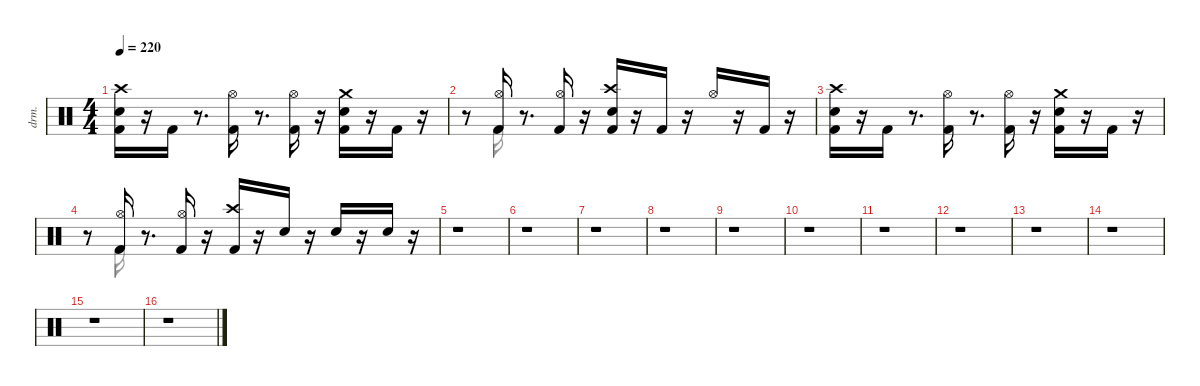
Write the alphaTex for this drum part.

\defaultSystemsLayout 4
\hideDynamics
\bracketExtendMode nobrackets
\otherSystemsTrackNameOrientation horizontal
\track ("EZdrummer 3" "drm.") {mute instrument percussion}
\staff {score}
\articulation defaults
\voice
\ts (4 4)
\tempo 220
\clef neutral
\ks c
("Kick (hit) 2" "Snare (hit) 2" "Crash high (hit)"{acc #}).16{dy ff beam Down} r.16{beam Down} "Kick (hit) 2".16{dy f beam Up} r.8{d beam Up} ("Kick (hit) 2" "Hi-Hat (open)"{acc #}).16{dy mf beam Down} r.8{d beam Down} ("Kick (hit) 2" "Hi-Hat (open)"{acc #}).16{dy f beam Down} r.16{beam Down} ("Kick (hit) 2" "Snare (hit) 2" "Crash medium (hit)").16{dy fff beam Down} r.16{beam Down} "Kick (hit) 2".16{dy f beam Up} r.16{beam Up} |
r.8{beam Up} ("Kick (hit) 2" "Hi-Hat (open)"{acc #}).16{dy mf beam Up} r.8{d beam Up} ("Kick (hit) 2" "Hi-Hat (open)"{acc #}).16{dy f beam Up} r.16{beam Up} ("Kick (hit) 2" "Snare (hit) 2" "Crash high (hit)"{acc #}).16{dy fff beam Up} r.16{beam Up} "Kick (hit) 2".16{dy f beam Up} r.16{beam Up} "Hi-Hat (open)"{acc #}.16{dy ff beam Up} r.16{beam Up} "Kick (hit) 2".16{dy mf beam Up} r.16{beam Up} |
("Kick (hit) 2" "Snare (hit) 2" "Crash high (hit)"{acc #}).16{dy ff beam Down} r.16{beam Down} "Kick (hit) 2".16{dy f beam Up} r.8{d beam Up} ("Kick (hit) 2" "Hi-Hat (open)"{acc #}).16{dy ff beam Down} r.8{d beam Down} ("Kick (hit) 2" "Hi-Hat (open)"{acc #}).16{dy f beam Down} r.16{beam Down} ("Crash medium (hit)" "Kick (hit) 2" "Snare (hit) 2").16{dy fff beam Down} r.16{beam Down} "Kick (hit) 2".16{dy f beam Up} r.16{beam Up} |
r.8{beam Up} ("Kick (hit) 2" "Hi-Hat (open)"{acc #}).16{dy mf beam Up} r.8{d beam Up} ("Kick (hit) 2" "Hi-Hat (open)"{acc #}).16{dy f beam Up} r.16{beam Up} ("Kick (hit) 2" "Crash high (hit)"{acc #}).16{dy fff beam Up} r.16{beam Up} "Snare (hit) 2".16{dy f beam Up} r.16{beam Up} "Snare (hit) 2".16{dy fff beam Up} r.16{beam Up} "Snare (hit) 2".16{beam Up} r.16{beam Up} |
r.1{beam Down} |
r.1{beam Down} |
r.1{beam Down} |
r.1{beam Down} |
r.1{beam Down} |
r.1{beam Down} |
r.1{beam Down} |
r.1{beam Down} |
r.1{beam Down} |
r.1{beam Down} |
r.1{beam Down} |
r.1{beam Down}
\voice
\clef neutral
\ottava regular
\simile none
\ks c
|
r.8{beam Down} "Kick (hit) 2".16{beam Down} |
|
r.8{beam Down} "Kick (hit) 2".16{beam Down} |
|
|
|
|
|
|
|
|
|
|
|
